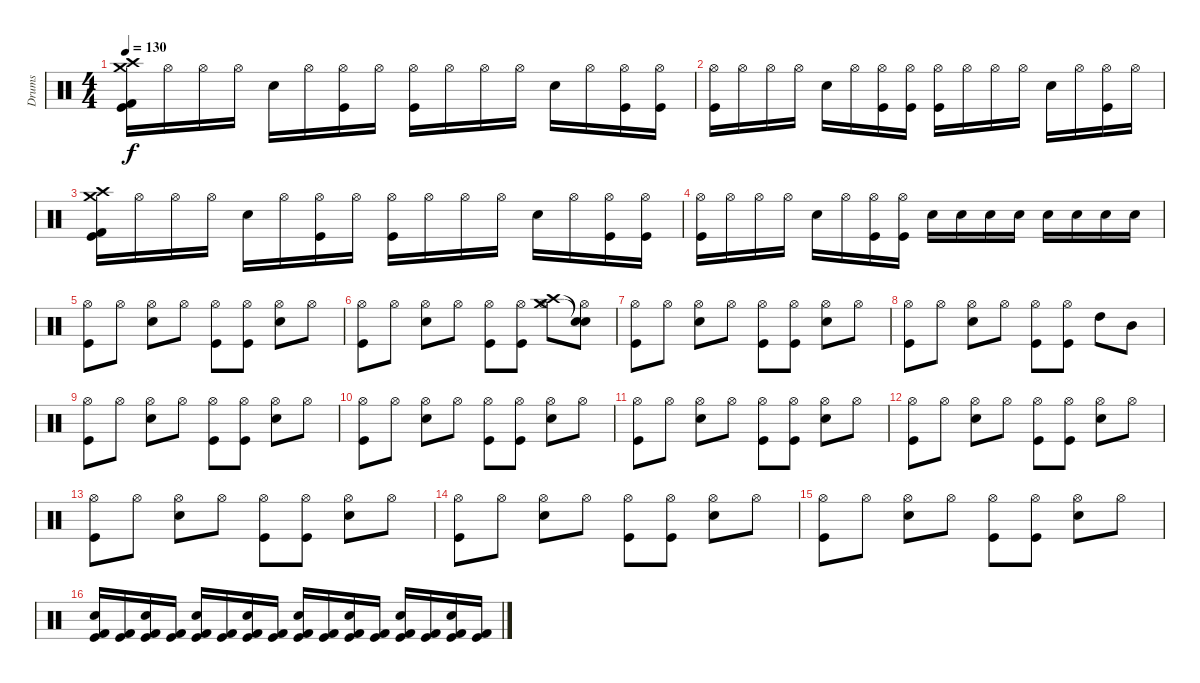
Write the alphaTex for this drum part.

\track ("Drums" "Drums") {instrument percussion}
\staff {score}
\articulation defaults
\ts (4 4)
\tempo 130
\clef neutral
\ks c
("Crash medium (hit)" "Crash high (hit)" "Kick (hit) 2" "Kick (hit)").16{dy f} "Hi-Hat (open)".16 "Hi-Hat (open)".16 "Hi-Hat (open)".16 "Electric Snare (hit)".16 "Hi-Hat (open)".16 ("Hi-Hat (open)" "Kick (hit)").16 "Hi-Hat (open)".16 ("Hi-Hat (open)" "Kick (hit)").16 "Hi-Hat (open)".16 "Hi-Hat (open)".16 "Hi-Hat (open)".16 "Electric Snare (hit)".16 "Hi-Hat (open)".16 ("Hi-Hat (open)" "Kick (hit)").16 ("Hi-Hat (open)" "Kick (hit)").16 |
("Hi-Hat (open)" "Kick (hit)").16 "Hi-Hat (open)".16 "Hi-Hat (open)".16 "Hi-Hat (open)".16 "Electric Snare (hit)".16 "Hi-Hat (open)".16 ("Hi-Hat (open)" "Kick (hit)").16 ("Hi-Hat (open)" "Kick (hit)").16 ("Hi-Hat (open)" "Kick (hit)").16 "Hi-Hat (open)".16 "Hi-Hat (open)".16 "Hi-Hat (open)".16 "Electric Snare (hit)".16 "Hi-Hat (open)".16 ("Hi-Hat (open)" "Kick (hit)").16 "Hi-Hat (open)".16 |
("Crash medium (hit)" "Crash high (hit)" "Kick (hit) 2" "Kick (hit)").16 "Hi-Hat (open)".16 "Hi-Hat (open)".16 "Hi-Hat (open)".16 "Electric Snare (hit)".16 "Hi-Hat (open)".16 ("Hi-Hat (open)" "Kick (hit)").16 "Hi-Hat (open)".16 ("Hi-Hat (open)" "Kick (hit)").16 "Hi-Hat (open)".16 "Hi-Hat (open)".16 "Hi-Hat (open)".16 "Electric Snare (hit)".16 "Hi-Hat (open)".16 ("Hi-Hat (open)" "Kick (hit)").16 ("Hi-Hat (open)" "Kick (hit)").16 |
("Hi-Hat (open)" "Kick (hit)").16 "Hi-Hat (open)".16 "Hi-Hat (open)".16 "Hi-Hat (open)".16 "Electric Snare (hit)".16 "Hi-Hat (open)".16 ("Hi-Hat (open)" "Kick (hit)").16 ("Hi-Hat (open)" "Kick (hit)").16 "Electric Snare (hit)".16 "Electric Snare (hit)".16 "Electric Snare (hit)".16 "Electric Snare (hit)".16 "Electric Snare (hit)".16 "Electric Snare (hit)".16 "Electric Snare (hit)".16 "Electric Snare (hit)".16 |
("Kick (hit)" "Hi-Hat (open)").8 "Hi-Hat (open)".8 ("Electric Snare (hit)" "Hi-Hat (open)").8 "Hi-Hat (open)".8 ("Kick (hit)" "Hi-Hat (open)").8 ("Kick (hit)" "Hi-Hat (open)").8 ("Electric Snare (hit)" "Hi-Hat (open)").8 "Hi-Hat (open)".8 |
("Kick (hit)" "Hi-Hat (open)").8 "Hi-Hat (open)".8 ("Electric Snare (hit)" "Hi-Hat (open)").8 "Hi-Hat (open)".8 ("Kick (hit)" "Hi-Hat (open)").8 ("Kick (hit)" "Hi-Hat (open)").8 ("Crash medium (hit)" "Crash high (hit)" "Hi-Hat (open)").8 ("Snare (hit)"{t} "Snare (hit)"{t} "Hi-Hat (open)").8 |
("Kick (hit)" "Hi-Hat (open)").8 "Hi-Hat (open)".8 ("Electric Snare (hit)" "Hi-Hat (open)").8 "Hi-Hat (open)".8 ("Kick (hit)" "Hi-Hat (open)").8 ("Kick (hit)" "Hi-Hat (open)").8 ("Electric Snare (hit)" "Hi-Hat (open)").8 "Hi-Hat (open)".8 |
("Kick (hit)" "Hi-Hat (open)").8 "Hi-Hat (open)".8 ("Electric Snare (hit)" "Hi-Hat (open)").8 "Hi-Hat (open)".8 ("Kick (hit)" "Hi-Hat (open)").8 ("Kick (hit)" "Hi-Hat (open)").8 "High Tom (hit)".8 "Mid Tom (hit)".8 |
("Kick (hit)" "Hi-Hat (open)").8 "Hi-Hat (open)".8 ("Electric Snare (hit)" "Hi-Hat (open)").8 "Hi-Hat (open)".8 ("Kick (hit)" "Hi-Hat (open)").8 ("Kick (hit)" "Hi-Hat (open)").8 ("Electric Snare (hit)" "Hi-Hat (open)").8 "Hi-Hat (open)".8 |
("Kick (hit)" "Hi-Hat (open)").8 "Hi-Hat (open)".8 ("Electric Snare (hit)" "Hi-Hat (open)").8 "Hi-Hat (open)".8 ("Kick (hit)" "Hi-Hat (open)").8 ("Kick (hit)" "Hi-Hat (open)").8 ("Electric Snare (hit)" "Hi-Hat (open)").8 "Hi-Hat (open)".8 |
("Kick (hit)" "Hi-Hat (open)").8 "Hi-Hat (open)".8 ("Electric Snare (hit)" "Hi-Hat (open)").8 "Hi-Hat (open)".8 ("Kick (hit)" "Hi-Hat (open)").8 ("Kick (hit)" "Hi-Hat (open)").8 ("Electric Snare (hit)" "Hi-Hat (open)").8 "Hi-Hat (open)".8 |
("Kick (hit)" "Hi-Hat (open)").8 "Hi-Hat (open)".8 ("Electric Snare (hit)" "Hi-Hat (open)").8 "Hi-Hat (open)".8 ("Kick (hit)" "Hi-Hat (open)").8 ("Kick (hit)" "Hi-Hat (open)").8 ("Electric Snare (hit)" "Hi-Hat (open)").8 "Hi-Hat (open)".8 |
("Kick (hit)" "Hi-Hat (open)").8 "Hi-Hat (open)".8 ("Electric Snare (hit)" "Hi-Hat (open)").8 "Hi-Hat (open)".8 ("Kick (hit)" "Hi-Hat (open)").8 ("Kick (hit)" "Hi-Hat (open)").8 ("Electric Snare (hit)" "Hi-Hat (open)").8 "Hi-Hat (open)".8 |
("Kick (hit)" "Hi-Hat (open)").8 "Hi-Hat (open)".8 ("Electric Snare (hit)" "Hi-Hat (open)").8 "Hi-Hat (open)".8 ("Kick (hit)" "Hi-Hat (open)").8 ("Kick (hit)" "Hi-Hat (open)").8 ("Electric Snare (hit)" "Hi-Hat (open)").8 "Hi-Hat (open)".8 |
("Kick (hit)" "Hi-Hat (open)").8 "Hi-Hat (open)".8 ("Electric Snare (hit)" "Hi-Hat (open)").8 "Hi-Hat (open)".8 ("Kick (hit)" "Hi-Hat (open)").8 ("Kick (hit)" "Hi-Hat (open)").8 ("Electric Snare (hit)" "Hi-Hat (open)").8 "Hi-Hat (open)".8 |
("Electric Snare (hit)" "Kick (hit)" "Kick (hit) 2").16 ("Kick (hit)" "Kick (hit) 2").16 ("Electric Snare (hit)" "Kick (hit)" "Kick (hit) 2").16 ("Kick (hit)" "Kick (hit) 2").16 ("Electric Snare (hit)" "Kick (hit)" "Kick (hit) 2").16 ("Kick (hit)" "Kick (hit) 2").16 ("Electric Snare (hit)" "Kick (hit)" "Kick (hit) 2").16 ("Kick (hit)" "Kick (hit) 2").16 ("Electric Snare (hit)" "Kick (hit)" "Kick (hit) 2").16 ("Kick (hit)" "Kick (hit) 2").16 ("Electric Snare (hit)" "Kick (hit)" "Kick (hit) 2").16 ("Kick (hit)" "Kick (hit) 2").16 ("Electric Snare (hit)" "Kick (hit)" "Kick (hit) 2").16 ("Kick (hit)" "Kick (hit) 2").16 ("Electric Snare (hit)" "Kick (hit)" "Kick (hit) 2").16 ("Kick (hit)" "Kick (hit) 2").16
